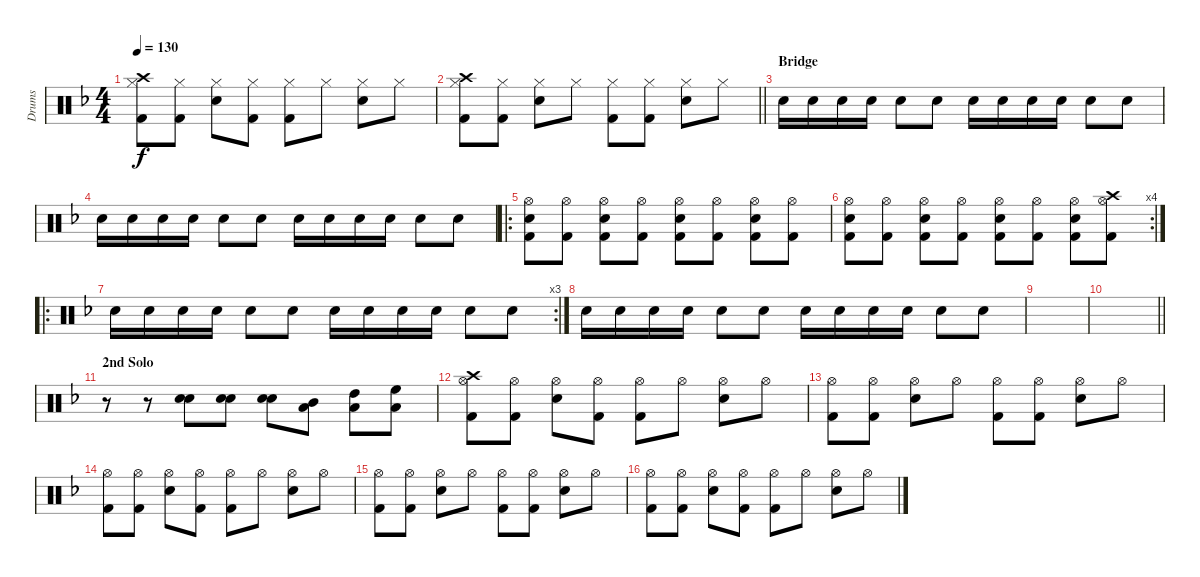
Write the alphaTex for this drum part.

\track ("Drums" "Drums") {instrument percussion}
\staff {score}
\articulation defaults
\ts (4 4)
\tempo 130
\clef neutral
\ks dminor
("Hi-Hat (closed)" "Kick (hit) 2" "Crash high (hit)").8{dy f} ("Hi-Hat (closed)" "Kick (hit) 2").8 ("Hi-Hat (closed)" "Snare (hit) 2").8 ("Hi-Hat (closed)" "Kick (hit) 2").8 ("Hi-Hat (closed)" "Kick (hit) 2").8 "Hi-Hat (closed)".8 ("Hi-Hat (closed)" "Snare (hit) 2").8 "Hi-Hat (closed)".8 |
\barLineRight lightlight
("Hi-Hat (closed)" "Kick (hit) 2" "Crash high (hit)").8 ("Hi-Hat (closed)" "Kick (hit) 2").8 ("Hi-Hat (closed)" "Snare (hit) 2").8 "Hi-Hat (closed)".8 ("Hi-Hat (closed)" "Kick (hit) 2").8 ("Hi-Hat (closed)" "Kick (hit) 2").8 ("Hi-Hat (closed)" "Snare (hit) 2").8 "Hi-Hat (closed)".8 |
\section ("" "Bridge")
"Snare (hit) 2".16 "Snare (hit) 2".16 "Snare (hit) 2".16 "Snare (hit) 2".16 "Snare (hit) 2".8 "Snare (hit) 2".8 "Snare (hit) 2".16 "Snare (hit) 2".16 "Snare (hit) 2".16 "Snare (hit) 2".16 "Snare (hit) 2".8 "Snare (hit) 2".8 |
"Snare (hit) 2".16 "Snare (hit) 2".16 "Snare (hit) 2".16 "Snare (hit) 2".16 "Snare (hit) 2".8 "Snare (hit) 2".8 "Snare (hit) 2".16 "Snare (hit) 2".16 "Snare (hit) 2".16 "Snare (hit) 2".16 "Snare (hit) 2".8 "Snare (hit) 2".8 |
\ro
("Hi-Hat (open)" "Snare (hit) 2" "Kick (hit) 2").8 ("Hi-Hat (open)" "Kick (hit) 2").8 ("Hi-Hat (open)" "Snare (hit) 2" "Kick (hit) 2").8 ("Hi-Hat (open)" "Kick (hit) 2").8 ("Hi-Hat (open)" "Snare (hit) 2" "Kick (hit) 2").8 ("Hi-Hat (open)" "Kick (hit) 2").8 ("Hi-Hat (open)" "Snare (hit) 2" "Kick (hit) 2").8 ("Hi-Hat (open)" "Kick (hit) 2").8 |
\rc 4
("Hi-Hat (open)" "Snare (hit) 2" "Kick (hit) 2").8 ("Hi-Hat (open)" "Kick (hit) 2").8 ("Hi-Hat (open)" "Snare (hit) 2" "Kick (hit) 2").8 ("Hi-Hat (open)" "Kick (hit) 2").8 ("Hi-Hat (open)" "Snare (hit) 2" "Kick (hit) 2").8 ("Hi-Hat (open)" "Kick (hit) 2").8 ("Hi-Hat (open)" "Snare (hit) 2" "Kick (hit) 2").8 ("Hi-Hat (open)" "Kick (hit) 2" "Crash high (hit)").8 |
\ro
\rc 3 "Snare (hit) 2".16 "Snare (hit) 2".16 "Snare (hit) 2".16 "Snare (hit) 2".16 "Snare (hit) 2".8 "Snare (hit) 2".8 "Snare (hit) 2".16 "Snare (hit) 2".16 "Snare (hit) 2".16 "Snare (hit) 2".16 "Snare (hit) 2".8 "Snare (hit) 2".8
|
"Snare (hit) 2".16 "Snare (hit) 2".16 "Snare (hit) 2".16 "Snare (hit) 2".16 "Snare (hit) 2".8 "Snare (hit) 2".8 "Snare (hit) 2".16 "Snare (hit) 2".16 "Snare (hit) 2".16 "Snare (hit) 2".16 "Snare (hit) 2".8 "Snare (hit) 2".8 |
|
\barLineRight lightlight
|
\section ("" "2nd Solo")
r.8 r.8 ("Snare (hit) 2" "Snare (hit) 2").8 ("Snare (hit) 2" "Snare (hit) 2").8 ("Snare (hit) 2" "Snare (hit) 2").8 ("Mid Tom (hit)" "Low Tom (hit)").8 ("High Tom (hit)" "Low Tom (hit)").8 ("High Floor Tom (hit)" "Low Tom (hit)").8 |
("Hi-Hat (open)" "Kick (hit) 2" "Crash high (hit)").8 ("Hi-Hat (open)" "Kick (hit) 2").8 ("Hi-Hat (open)" "Snare (hit) 2").8 ("Hi-Hat (open)" "Kick (hit) 2").8 ("Hi-Hat (open)" "Kick (hit) 2").8 "Hi-Hat (open)".8 ("Hi-Hat (open)" "Snare (hit) 2").8 "Hi-Hat (open)".8 |
("Hi-Hat (open)" "Kick (hit) 2").8 ("Hi-Hat (open)" "Kick (hit) 2").8 ("Hi-Hat (open)" "Snare (hit) 2").8 "Hi-Hat (open)".8 ("Hi-Hat (open)" "Kick (hit) 2").8 ("Hi-Hat (open)" "Kick (hit) 2").8 ("Hi-Hat (open)" "Snare (hit) 2").8 "Hi-Hat (open)".8 |
("Hi-Hat (open)" "Kick (hit) 2").8 ("Hi-Hat (open)" "Kick (hit) 2").8 ("Hi-Hat (open)" "Snare (hit) 2").8 ("Hi-Hat (open)" "Kick (hit) 2").8 ("Hi-Hat (open)" "Kick (hit) 2").8 "Hi-Hat (open)".8 ("Hi-Hat (open)" "Snare (hit) 2").8 "Hi-Hat (open)".8 |
("Hi-Hat (open)" "Kick (hit) 2").8 ("Hi-Hat (open)" "Kick (hit) 2").8 ("Hi-Hat (open)" "Snare (hit) 2").8 "Hi-Hat (open)".8 ("Hi-Hat (open)" "Kick (hit) 2").8 ("Hi-Hat (open)" "Kick (hit) 2").8 ("Hi-Hat (open)" "Snare (hit) 2").8 "Hi-Hat (open)".8 |
("Hi-Hat (open)" "Kick (hit) 2").8 ("Hi-Hat (open)" "Kick (hit) 2").8 ("Hi-Hat (open)" "Snare (hit) 2").8 ("Hi-Hat (open)" "Kick (hit) 2").8 ("Hi-Hat (open)" "Kick (hit) 2").8 "Hi-Hat (open)".8 ("Hi-Hat (open)" "Snare (hit) 2").8 "Hi-Hat (open)".8
